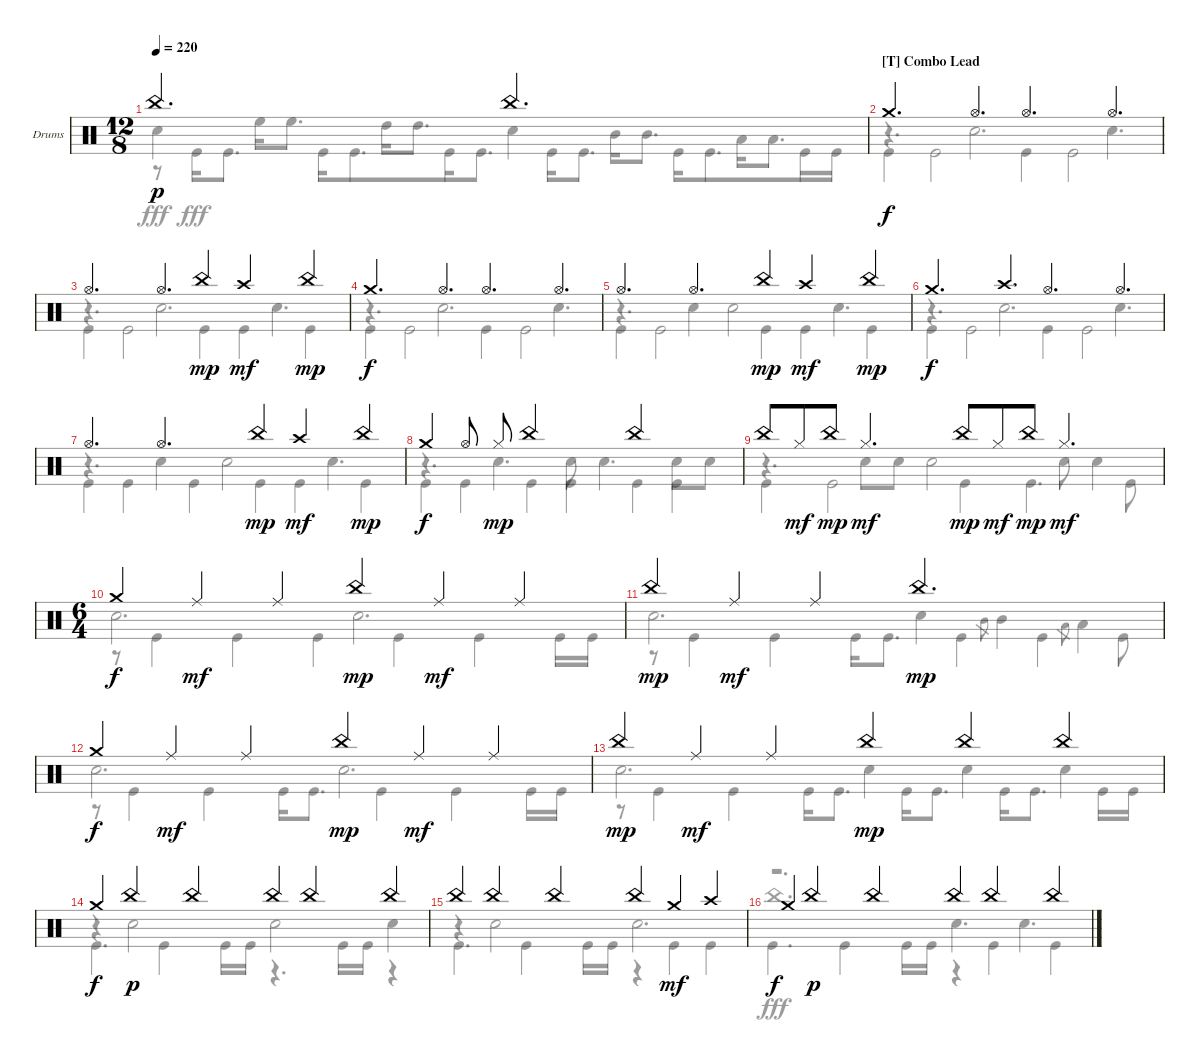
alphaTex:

\defaultSystemsLayout 4
\bracketExtendMode groupsimilarinstruments
\firstSystemTrackNameOrientation horizontal
\otherSystemsTrackNameOrientation horizontal
\track ("Drumkit" "Drums") {instrument percussion}
\staff {score}
\articulation defaults
\voice
\ts (12 8)
\tempo 220
\clef neutral
\ks c "China (hit)".2{d dy p} "China (hit)".2{d}
|
\section ("T" "Combo Lead")
"Crash medium (hit)".4{d dy f} "Hi-Hat (open)".4{d} "Hi-Hat (open)".4{d} "Hi-Hat (open)".4{d} |
"Hi-Hat (open)".4{d} "Hi-Hat (open)".4{d} "China (hit)".4{dy mp} "Crash high (hit)".4{dy mf} "China (hit)".4{dy mp} |
"Crash medium (hit)".4{d dy f} "Hi-Hat (open)".4{d} "Hi-Hat (open)".4{d} "Hi-Hat (open)".4{d} |
"Hi-Hat (open)".4{d} "Hi-Hat (open)".4{d} "China (hit)".4{dy mp} "Crash high (hit)".4{dy mf} "China (hit)".4{dy mp} |
"Crash medium (hit)".4{d dy f} "Crash high (hit)".4{d} "Hi-Hat (open)".4{d} "Hi-Hat (open)".4{d} |
"Hi-Hat (open)".4{d} "Hi-Hat (open)".4{d} "China (hit)".4{dy mp} "Crash high (hit)".4{dy mf} "China (hit)".4{dy mp} |
"Crash medium (hit)".4{dy f} "Hi-Hat (open)".8 "Hi-Hat (closed)".8{dy mp} "China (hit)".2 "China (hit)".2 |
"China (hit)".8 "Hi-Hat (closed)".8{dy mf} "China (hit)".8{dy mp} "Hi-Hat (closed)".4{d dy mf} "China (hit)".8{dy mp} "Hi-Hat (closed)".8{dy mf} "China (hit)".8{dy mp} "Hi-Hat (closed)".4{d dy mf} |
\ts (6 4)
"Crash medium (hit)".4{dy f} "Ride (middle)".4{dy mf} "Ride (middle)".4 "China (hit)".4{dy mp} "Ride (middle)".4{dy mf} "Ride (middle)".4 |
"China (hit)".4{dy mp} "Ride (middle)".4{dy mf} "Ride (middle)".4 "China (hit)".2{d dy mp} |
"Crash medium (hit)".4{dy f} "Ride (middle)".4{dy mf} "Ride (middle)".4 "China (hit)".4{dy mp} "Ride (middle)".4{dy mf} "Ride (middle)".4 |
"China (hit)".4{dy mp} "Ride (middle)".4{dy mf} "Ride (middle)".4 "China (hit)".4{dy mp} "China (hit)".4 "China (hit)".4 |
"Crash medium (hit)".4{dy f} "China (hit)".4{dy p} "China (hit)".4 "China (hit)".4 "China (hit)".4 "China (hit)".4 |
"China (hit)".4 "China (hit)".4 "China (hit)".4 "China (hit)".4 "Crash medium (hit)".4{dy mf} "Crash high (hit)".4 |
"Crash medium (hit)".4{dy f} "China (hit)".4{dy p} "China (hit)".4 "China (hit)".4 "China (hit)".4 "China (hit)".4
\voice
\clef neutral
\ottava regular
\simile none
\ks c "Snare (hit) 2".4{dy fff} "High Floor Tom (hit)".16 "High Floor Tom (hit)".8{d} "High Tom (hit)".16 "High Tom (hit)".8{d} "Snare (hit) 2".4 "Mid Tom (hit)".16 "Mid Tom (hit)".8{d} "Low Tom (hit)".16 "Low Tom (hit)".8{d}
|
r.4{d} "Snare (hit) 2".2{d} "Snare (hit) 2".4{d} |
r.4{d} "Snare (hit) 2".2{d} "Snare (hit) 2".4{d} |
r.4{d} "Snare (hit) 2".2{d} "Snare (hit) 2".4{d} |
r.4{d} "Snare (hit) 2".4 "Snare (hit) 2".2 "Snare (hit) 2".4{d} |
r.4{d} "Snare (hit) 2".2{d} "Snare (hit) 2".4{d} |
r.4{d} "Snare (hit) 2".4 "Snare (hit) 2".2 "Snare (hit) 2".4{d} |
r.4{d} "Snare (hit) 2".4{d} "Snare (hit) 2".8 "Snare (hit) 2".4{d} "Snare (hit) 2".8 "Snare (hit) 2".8 |
r.4{d} "Snare (hit) 2".8 "Snare (hit) 2".8 "Snare (hit) 2".2 "Snare (hit) 2".8 "Snare (hit) 2".4 |
"Snare (hit) 2".2{d} "Snare (hit) 2".2{d} |
"Snare (hit) 2".2{d} "Snare (hit) 2".4 "Mid Tom (hit)".8{gr} "Mid Tom (hit)".4 "Low Tom (hit)".8{gr} "Low Tom (hit)".4 |
"Snare (hit) 2".2{d} "Snare (hit) 2".2{d} |
"Snare (hit) 2".2{d} "Snare (hit) 2".4 "Snare (hit) 2".4 "Snare (hit) 2".4 |
r.4 "Snare (hit) 2".2 "Snare (hit) 2".2 "Snare (hit) 2".4 |
r.4 "Snare (hit) 2".2 "Snare (hit) 2".2{d} |
r.2{d} "Snare (hit) 2".4{d} "Snare (hit) 2".4{d}
\voice
\clef neutral
\ottava regular
\simile none
\ks c
r.8{dy fff} "Kick (hit)".16 "Kick (hit)".8{d} "Kick (hit)".16 "Kick (hit)".8{d} "Kick (hit)".16 "Kick (hit)".8{d} "Kick (hit)".16 "Kick (hit)".8{d} "Kick (hit)".16 "Kick (hit)".8{d} "Kick (hit)".16 "Kick (hit)".16 |
"Kick (hit)".4 "Kick (hit)".2 "Kick (hit)".4 "Kick (hit)".2 |
"Kick (hit)".4 "Kick (hit)".2 "Kick (hit)".4 "Kick (hit)".4 "Kick (hit)".4 |
"Kick (hit)".4 "Kick (hit)".2 "Kick (hit)".4 "Kick (hit)".2 |
"Kick (hit)".4 "Kick (hit)".2 "Kick (hit)".4 "Kick (hit)".4 "Kick (hit)".4 |
"Kick (hit)".4 "Kick (hit)".2 "Kick (hit)".4 "Kick (hit)".2 |
"Kick (hit)".4 "Kick (hit)".4 "Kick (hit)".4 "Kick (hit)".4 "Kick (hit)".4 "Kick (hit)".4 |
"Kick (hit)".4 "Kick (hit)".4 "Kick (hit)".4 "Kick (hit)".4 "Kick (hit)".4 "Kick (hit)".4 |
"Kick (hit)".4 "Kick (hit)".2 "Kick (hit)".4 "Kick (hit)".4{d} "Kick (hit)".8 |
r.8 "Kick (hit)".4 "Kick (hit)".4 "Kick (hit)".4 "Kick (hit)".4 "Kick (hit)".4 "Kick (hit)".16 "Kick (hit)".16 |
r.8 "Kick (hit)".4 "Kick (hit)".4 "Kick (hit)".16 "Kick (hit)".8{d} "Kick (hit)".4 "Kick (hit)".4 "Kick (hit)".8 |
r.8 "Kick (hit)".4 "Kick (hit)".4 "Kick (hit)".16 "Kick (hit)".8{d} "Kick (hit)".4 "Kick (hit)".4 "Kick (hit)".16 "Kick (hit)".16 |
r.8 "Kick (hit)".4 "Kick (hit)".4 "Kick (hit)".16 "Kick (hit)".8{d} "Kick (hit)".16 "Kick (hit)".8{d} "Kick (hit)".16 "Kick (hit)".8{d} "Kick (hit)".16 "Kick (hit)".16 |
"Kick (hit)".4{d} "Kick (hit)".4 "Kick (hit)".16 "Kick (hit)".16 r.4{d} "Kick (hit)".16 "Kick (hit)".16 r.4 |
"Kick (hit)".4{d} "Kick (hit)".4 "Kick (hit)".16 "Kick (hit)".16 r.4 "Kick (hit)".4 "Kick (hit)".4 |
"Kick (hit)".4{d} "Kick (hit)".4 "Kick (hit)".16 "Kick (hit)".16 r.4 "Kick (hit)".4 "Kick (hit)".4
\voice
\clef neutral
\ottava regular
\simile none
\ks c
|
|
|
|
|
|
|
|
|
|
|
|
|
|
|
"China (hit)".1{d}
